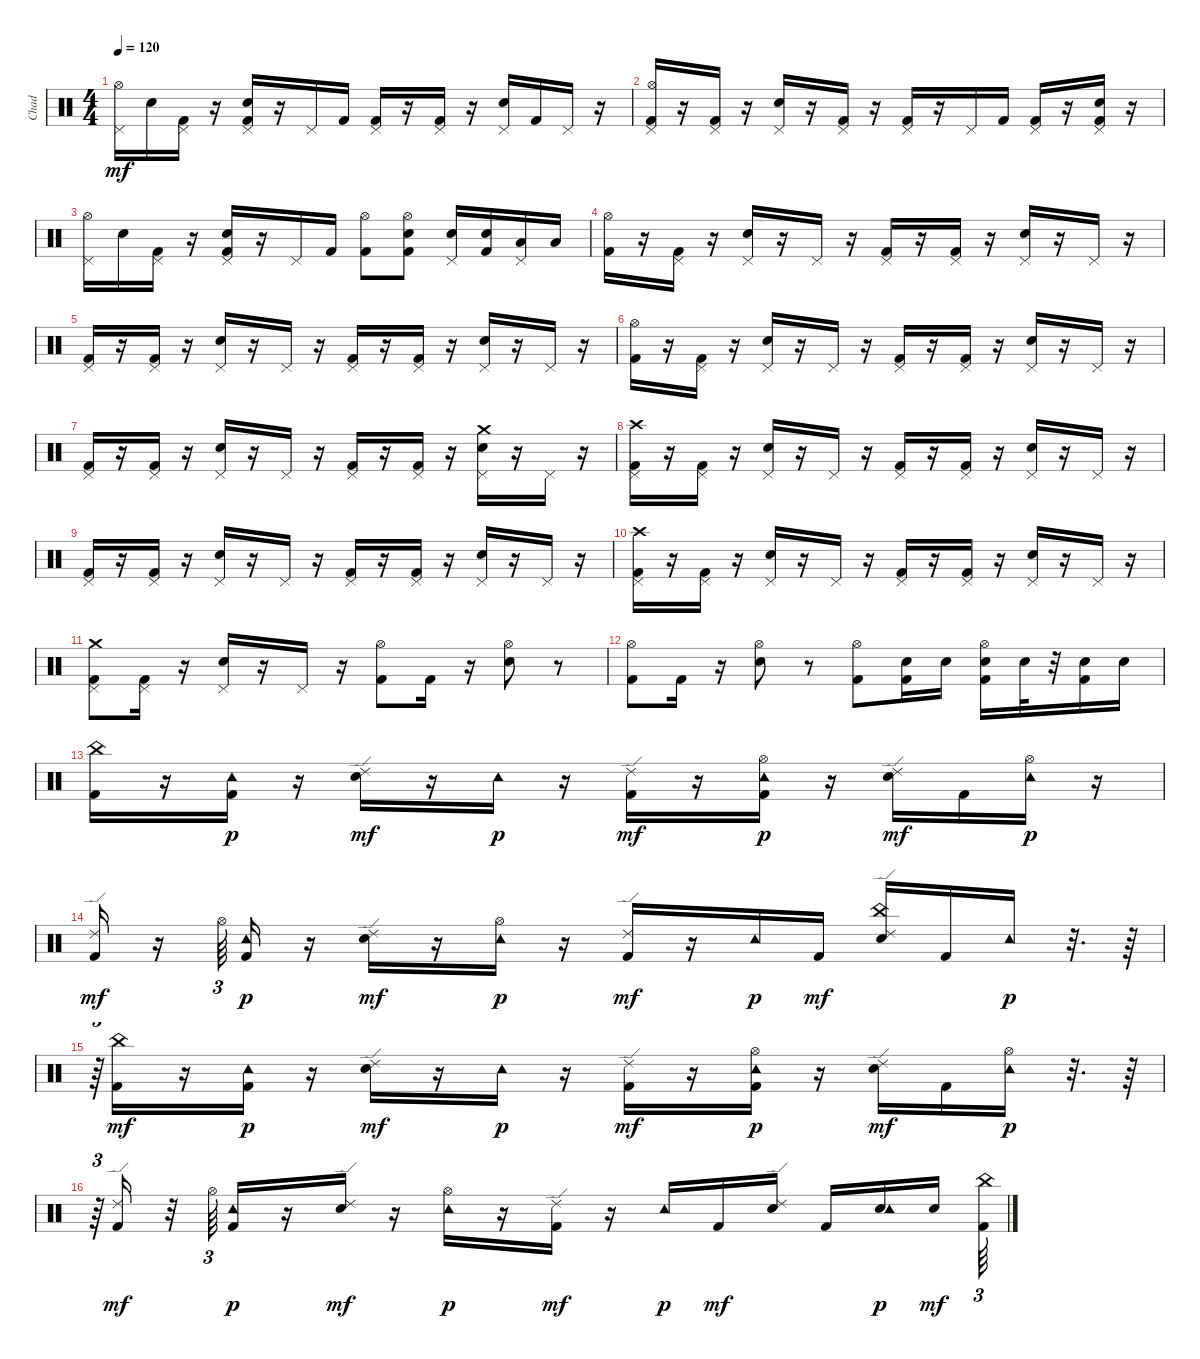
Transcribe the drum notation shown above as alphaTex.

\track ("Chad" "Chad") {instrument percussion}
\staff {score}
\articulation defaults
\ts (4 4)
\tempo 120
\clef neutral
\ks c
("Pedal Hi-Hat (hit)" "Hi-Hat (open)").16{dy mf} "Snare (hit) 2".16 ("Kick (hit) 2" "Pedal Hi-Hat (hit)").16 r.16 ("Kick (hit) 2" "Snare (hit) 2" "Pedal Hi-Hat (hit)").16 r.16 "Pedal Hi-Hat (hit)".16 "Kick (hit) 2".16 ("Kick (hit) 2" "Pedal Hi-Hat (hit)").16 r.16 ("Kick (hit) 2" "Pedal Hi-Hat (hit)").16 r.16 ("Snare (hit) 2" "Pedal Hi-Hat (hit)").16 "Kick (hit) 2".16 "Pedal Hi-Hat (hit)".16 r.16 |
("Kick (hit) 2" "Pedal Hi-Hat (hit)" "Hi-Hat (open)").16 r.16 ("Kick (hit) 2" "Pedal Hi-Hat (hit)").16 r.16 ("Snare (hit) 2" "Pedal Hi-Hat (hit)").16 r.16 ("Kick (hit) 2" "Pedal Hi-Hat (hit)").16 r.16 ("Kick (hit) 2" "Pedal Hi-Hat (hit)").16 r.16 "Pedal Hi-Hat (hit)".16 "Kick (hit) 2".16 ("Kick (hit) 2" "Pedal Hi-Hat (hit)").16 r.16 ("Kick (hit) 2" "Snare (hit) 2" "Pedal Hi-Hat (hit)").16 r.16 |
("Pedal Hi-Hat (hit)" "Hi-Hat (open)").16 "Snare (hit) 2".16 ("Kick (hit) 2" "Pedal Hi-Hat (hit)").16 r.16 ("Kick (hit) 2" "Snare (hit) 2" "Pedal Hi-Hat (hit)").16 r.16 "Pedal Hi-Hat (hit)".16 "Kick (hit) 2".16 ("Kick (hit) 2" "Hi-Hat (open)").8 ("Kick (hit) 2" "Snare (hit) 2" "Hi-Hat (open)").8 ("Snare (hit) 2" "Pedal Hi-Hat (hit)").16 ("Kick (hit) 2" "Snare (hit) 2").16 ("Low Floor Tom (hit)" "Pedal Hi-Hat (hit)").16 "Low Floor Tom (hit)".16 |
("Kick (hit) 2" "Hi-Hat (open)").16 r.16 ("Kick (hit) 2" "Pedal Hi-Hat (hit)").16 r.16 ("Snare (hit) 2" "Pedal Hi-Hat (hit)").16 r.16 "Pedal Hi-Hat (hit)".16 r.16 ("Kick (hit) 2" "Pedal Hi-Hat (hit)").16 r.16 ("Kick (hit) 2" "Pedal Hi-Hat (hit)").16 r.16 ("Snare (hit) 2" "Pedal Hi-Hat (hit)").16 r.16 "Pedal Hi-Hat (hit)".16 r.16 |
("Kick (hit) 2" "Pedal Hi-Hat (hit)").16 r.16 ("Kick (hit) 2" "Pedal Hi-Hat (hit)").16 r.16 ("Snare (hit) 2" "Pedal Hi-Hat (hit)").16 r.16 "Pedal Hi-Hat (hit)".16 r.16 ("Kick (hit) 2" "Pedal Hi-Hat (hit)").16 r.16 ("Kick (hit) 2" "Pedal Hi-Hat (hit)").16 r.16 ("Snare (hit) 2" "Pedal Hi-Hat (hit)").16 r.16 "Pedal Hi-Hat (hit)".16 r.16 |
("Kick (hit) 2" "Hi-Hat (open)").16 r.16 ("Kick (hit) 2" "Pedal Hi-Hat (hit)").16 r.16 ("Snare (hit) 2" "Pedal Hi-Hat (hit)").16 r.16 "Pedal Hi-Hat (hit)".16 r.16 ("Kick (hit) 2" "Pedal Hi-Hat (hit)").16 r.16 ("Kick (hit) 2" "Pedal Hi-Hat (hit)").16 r.16 ("Snare (hit) 2" "Pedal Hi-Hat (hit)").16 r.16 "Pedal Hi-Hat (hit)".16 r.16 |
("Kick (hit) 2" "Pedal Hi-Hat (hit)").16 r.16 ("Kick (hit) 2" "Pedal Hi-Hat (hit)").16 r.16 ("Snare (hit) 2" "Pedal Hi-Hat (hit)").16 r.16 "Pedal Hi-Hat (hit)".16 r.16 ("Kick (hit) 2" "Pedal Hi-Hat (hit)").16 r.16 ("Kick (hit) 2" "Pedal Hi-Hat (hit)").16 r.16 ("Snare (hit) 2" "Pedal Hi-Hat (hit)" "Crash medium (hit)").16 r.16 "Pedal Hi-Hat (hit)".16 r.16 |
("Kick (hit) 2" "Pedal Hi-Hat (hit)" "Crash high (hit)").16 r.16 ("Kick (hit) 2" "Pedal Hi-Hat (hit)").16 r.16 ("Snare (hit) 2" "Pedal Hi-Hat (hit)").16 r.16 "Pedal Hi-Hat (hit)".16 r.16 ("Kick (hit) 2" "Pedal Hi-Hat (hit)").16 r.16 ("Kick (hit) 2" "Pedal Hi-Hat (hit)").16 r.16 ("Snare (hit) 2" "Pedal Hi-Hat (hit)").16 r.16 "Pedal Hi-Hat (hit)".16 r.16 |
("Kick (hit) 2" "Pedal Hi-Hat (hit)").16 r.16 ("Kick (hit) 2" "Pedal Hi-Hat (hit)").16 r.16 ("Snare (hit) 2" "Pedal Hi-Hat (hit)").16 r.16 "Pedal Hi-Hat (hit)".16 r.16 ("Kick (hit) 2" "Pedal Hi-Hat (hit)").16 r.16 ("Kick (hit) 2" "Pedal Hi-Hat (hit)").16 r.16 ("Snare (hit) 2" "Pedal Hi-Hat (hit)").16 r.16 "Pedal Hi-Hat (hit)".16 r.16 |
("Kick (hit) 2" "Pedal Hi-Hat (hit)" "Crash high (hit)").16 r.16 ("Kick (hit) 2" "Pedal Hi-Hat (hit)").16 r.16 ("Snare (hit) 2" "Pedal Hi-Hat (hit)").16 r.16 "Pedal Hi-Hat (hit)".16 r.16 ("Kick (hit) 2" "Pedal Hi-Hat (hit)").16 r.16 ("Kick (hit) 2" "Pedal Hi-Hat (hit)").16 r.16 ("Snare (hit) 2" "Pedal Hi-Hat (hit)").16 r.16 "Pedal Hi-Hat (hit)".16 r.16 |
("Kick (hit) 2" "Pedal Hi-Hat (hit)" "Crash medium (hit)").8 ("Kick (hit) 2" "Pedal Hi-Hat (hit)").16 r.16 ("Snare (hit) 2" "Pedal Hi-Hat (hit)").16 r.16 "Pedal Hi-Hat (hit)".16 r.16 ("Kick (hit) 2" "Hi-Hat (open)").8 "Kick (hit) 2".16 r.16 ("Snare (hit) 2" "Hi-Hat (open)").8 r.8 |
("Hi-Hat (open)" "Kick (hit) 2").8 "Kick (hit) 2".16 r.16 ("Snare (hit) 2" "Hi-Hat (open)").8 r.8 ("Kick (hit) 2" "Hi-Hat (open)").8 ("Kick (hit) 2" "Snare (hit) 2").16 "Snare (hit) 2".16 ("Kick (hit) 2" "Snare (hit) 2" "Hi-Hat (open)").16 "Snare (hit) 2".32 r.32 ("Kick (hit) 2" "Snare (hit) 2").16 "Snare (hit) 2".16 |
("Kick (hit) 2" "China (hit)").16 r.16 ("Kick (hit) 2" "Tambourine (hit)").16{dy p} r.16 ("Snare (hit) 2" "Ride (edge) 2").16{dy mf} r.16 "Tambourine (hit)".16{dy p} r.16 ("Kick (hit) 2" "Ride (edge) 2").16{dy mf} r.16 ("Kick (hit) 2" "Hi-Hat (open)" "Tambourine (hit)").16{dy p} r.16 ("Snare (hit) 2" "Ride (edge) 2").16{dy mf} "Kick (hit) 2".16 ("Hi-Hat (open)" "Tambourine (hit)").16{dy p} r.16 |
("Kick (hit) 2" "Ride (edge) 2").16{dy mf} r.16 "Hi-Hat (open)".64{tu (3 2)} ("Kick (hit) 2" "Tambourine (hit)").16{dy p} r.16 ("Snare (hit) 2" "Ride (edge) 2").16{dy mf} r.16 ("Hi-Hat (open)" "Tambourine (hit)").16{dy p} r.16 ("Kick (hit) 2" "Ride (edge) 2").16{dy mf} r.16 "Tambourine (hit)".16{dy p} "Kick (hit) 2".16{dy mf} ("Snare (hit) 2" "China (hit)" "Ride (edge) 2").16 "Kick (hit) 2".16 "Tambourine (hit)".16{dy p} r.32{d} r.64 |
r.64{tu (3 2)} ("Kick (hit) 2" "China (hit)").16{dy mf} r.16 ("Kick (hit) 2" "Tambourine (hit)").16{dy p} r.16 ("Snare (hit) 2" "Ride (edge) 2").16{dy mf} r.16 "Tambourine (hit)".16{dy p} r.16 ("Kick (hit) 2" "Ride (edge) 2").16{dy mf} r.16 ("Kick (hit) 2" "Hi-Hat (open)" "Tambourine (hit)").16{dy p} r.16 ("Snare (hit) 2" "Ride (edge) 2").16{dy mf} "Kick (hit) 2".16 ("Hi-Hat (open)" "Tambourine (hit)").16{dy p} r.32{d} r.64 |
r.64{tu (3 2)} ("Kick (hit) 2" "Ride (edge) 2").16{dy mf} r.32 "Hi-Hat (open)".64{tu (3 2)} ("Kick (hit) 2" "Tambourine (hit)").16{dy p} r.16 ("Snare (hit) 2" "Ride (edge) 2").16{dy mf} r.16 ("Hi-Hat (open)" "Tambourine (hit)").16{dy p} r.16 ("Kick (hit) 2" "Ride (edge) 2").16{dy mf} r.16 "Tambourine (hit)".16{dy p} "Kick (hit) 2".16{dy mf} ("Snare (hit) 2" "Ride (edge) 2").16 "Kick (hit) 2".16 ("Snare (hit) 2" "Tambourine (hit)").16{dy p} "Snare (hit) 2".16{dy mf beam splitsecondary} ("Kick (hit) 2" "China (hit)").64{tu (3 2)}
